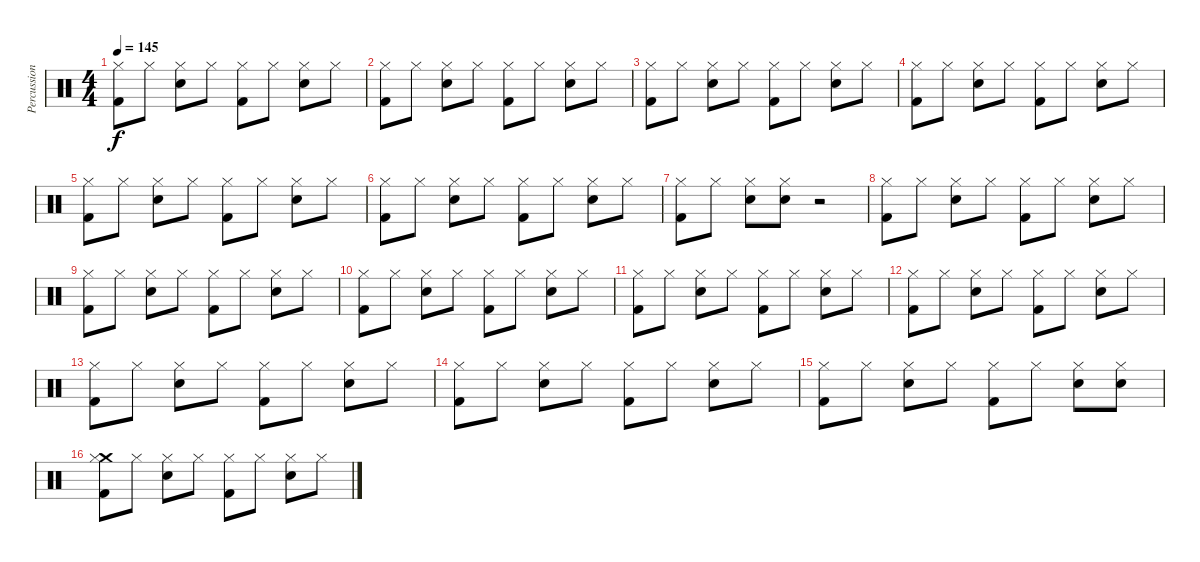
\track ("Percussion (Other)" "Percussion") {instrument percussion}
\staff {score}
\articulation defaults
\ts (4 4)
\tempo 145
\clef neutral
\ks c
("Hi-Hat (closed)" "Kick (hit) 2").8{dy f} "Hi-Hat (closed)".8 ("Hi-Hat (closed)" "Snare (hit) 2").8 "Hi-Hat (closed)".8 ("Hi-Hat (closed)" "Kick (hit) 2").8 "Hi-Hat (closed)".8 ("Hi-Hat (closed)" "Snare (hit) 2").8 "Hi-Hat (closed)".8 |
("Hi-Hat (closed)" "Kick (hit) 2").8 "Hi-Hat (closed)".8 ("Hi-Hat (closed)" "Snare (hit) 2").8 "Hi-Hat (closed)".8 ("Hi-Hat (closed)" "Kick (hit) 2").8 "Hi-Hat (closed)".8 ("Hi-Hat (closed)" "Snare (hit) 2").8 "Hi-Hat (closed)".8 |
("Hi-Hat (closed)" "Kick (hit) 2").8 "Hi-Hat (closed)".8 ("Hi-Hat (closed)" "Snare (hit) 2").8 "Hi-Hat (closed)".8 ("Hi-Hat (closed)" "Kick (hit) 2").8 "Hi-Hat (closed)".8 ("Hi-Hat (closed)" "Snare (hit) 2").8 "Hi-Hat (closed)".8 |
("Hi-Hat (closed)" "Kick (hit) 2").8 "Hi-Hat (closed)".8 ("Hi-Hat (closed)" "Snare (hit) 2").8 "Hi-Hat (closed)".8 ("Hi-Hat (closed)" "Kick (hit) 2").8 "Hi-Hat (closed)".8 ("Hi-Hat (closed)" "Snare (hit) 2").8 "Hi-Hat (closed)".8 |
("Hi-Hat (closed)" "Kick (hit) 2").8 "Hi-Hat (closed)".8 ("Hi-Hat (closed)" "Snare (hit) 2").8 "Hi-Hat (closed)".8 ("Hi-Hat (closed)" "Kick (hit) 2").8 "Hi-Hat (closed)".8 ("Hi-Hat (closed)" "Snare (hit) 2").8 "Hi-Hat (closed)".8 |
("Hi-Hat (closed)" "Kick (hit) 2").8 "Hi-Hat (closed)".8 ("Hi-Hat (closed)" "Snare (hit) 2").8 "Hi-Hat (closed)".8 ("Hi-Hat (closed)" "Kick (hit) 2").8 "Hi-Hat (closed)".8 ("Hi-Hat (closed)" "Snare (hit) 2").8 "Hi-Hat (closed)".8 |
("Hi-Hat (closed)" "Kick (hit) 2").8 "Hi-Hat (closed)".8 ("Hi-Hat (closed)" "Snare (hit) 2").8 ("Hi-Hat (closed)" "Snare (hit) 2").8 r.2 |
("Hi-Hat (closed)" "Kick (hit) 2").8 "Hi-Hat (closed)".8 ("Hi-Hat (closed)" "Snare (hit) 2").8 "Hi-Hat (closed)".8 ("Hi-Hat (closed)" "Kick (hit) 2").8 "Hi-Hat (closed)".8 ("Hi-Hat (closed)" "Snare (hit) 2").8 "Hi-Hat (closed)".8 |
("Hi-Hat (closed)" "Kick (hit) 2").8 "Hi-Hat (closed)".8 ("Hi-Hat (closed)" "Snare (hit) 2").8 "Hi-Hat (closed)".8 ("Hi-Hat (closed)" "Kick (hit) 2").8 "Hi-Hat (closed)".8 ("Hi-Hat (closed)" "Snare (hit) 2").8 "Hi-Hat (closed)".8 |
("Hi-Hat (closed)" "Kick (hit) 2").8 "Hi-Hat (closed)".8 ("Hi-Hat (closed)" "Snare (hit) 2").8 "Hi-Hat (closed)".8 ("Hi-Hat (closed)" "Kick (hit) 2").8 "Hi-Hat (closed)".8 ("Hi-Hat (closed)" "Snare (hit) 2").8 "Hi-Hat (closed)".8 |
("Hi-Hat (closed)" "Kick (hit) 2").8 "Hi-Hat (closed)".8 ("Hi-Hat (closed)" "Snare (hit) 2").8 "Hi-Hat (closed)".8 ("Hi-Hat (closed)" "Kick (hit) 2").8 "Hi-Hat (closed)".8 ("Hi-Hat (closed)" "Snare (hit) 2").8 "Hi-Hat (closed)".8 |
("Hi-Hat (closed)" "Kick (hit) 2").8 "Hi-Hat (closed)".8 ("Hi-Hat (closed)" "Snare (hit) 2").8 "Hi-Hat (closed)".8 ("Hi-Hat (closed)" "Kick (hit) 2").8 "Hi-Hat (closed)".8 ("Hi-Hat (closed)" "Snare (hit) 2").8 "Hi-Hat (closed)".8 |
("Hi-Hat (closed)" "Kick (hit) 2").8 "Hi-Hat (closed)".8 ("Hi-Hat (closed)" "Snare (hit) 2").8 "Hi-Hat (closed)".8 ("Hi-Hat (closed)" "Kick (hit) 2").8 "Hi-Hat (closed)".8 ("Hi-Hat (closed)" "Snare (hit) 2").8 "Hi-Hat (closed)".8 |
("Hi-Hat (closed)" "Kick (hit) 2").8 "Hi-Hat (closed)".8 ("Hi-Hat (closed)" "Snare (hit) 2").8 "Hi-Hat (closed)".8 ("Hi-Hat (closed)" "Kick (hit) 2").8 "Hi-Hat (closed)".8 ("Hi-Hat (closed)" "Snare (hit) 2").8 "Hi-Hat (closed)".8 |
("Hi-Hat (closed)" "Kick (hit) 2").8 "Hi-Hat (closed)".8 ("Hi-Hat (closed)" "Snare (hit) 2").8 "Hi-Hat (closed)".8 ("Hi-Hat (closed)" "Kick (hit) 2").8 "Hi-Hat (closed)".8 ("Hi-Hat (closed)" "Snare (hit) 2").8 ("Hi-Hat (closed)" "Snare (hit) 2").8 |
("Crash medium (hit)" "Hi-Hat (closed)" "Kick (hit) 2").8 "Hi-Hat (closed)".8 ("Hi-Hat (closed)" "Snare (hit) 2").8 "Hi-Hat (closed)".8 ("Hi-Hat (closed)" "Kick (hit) 2").8 "Hi-Hat (closed)".8 ("Hi-Hat (closed)" "Snare (hit) 2").8 "Hi-Hat (closed)".8
